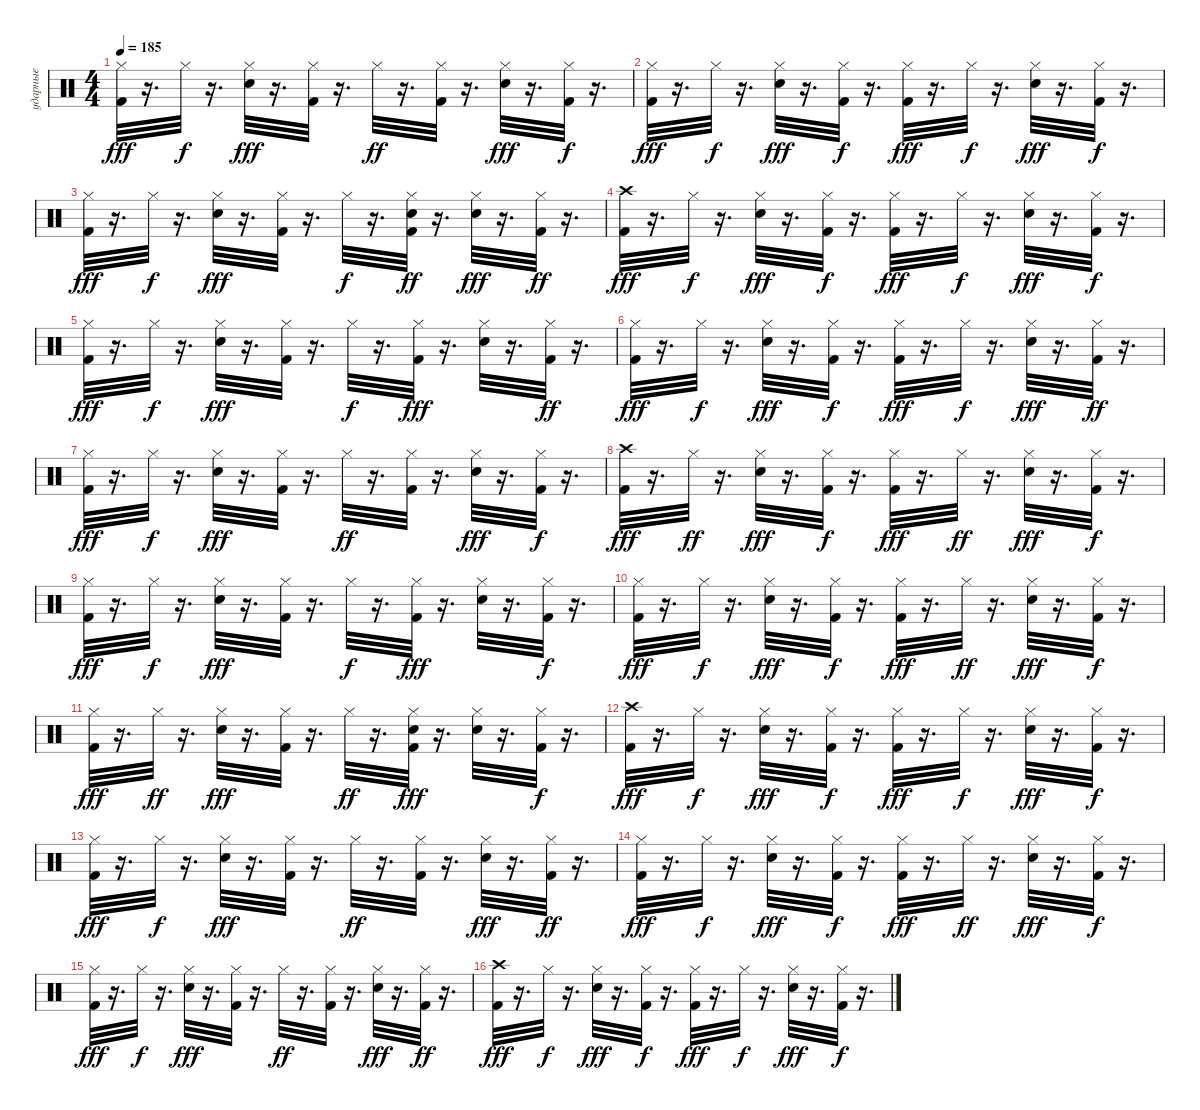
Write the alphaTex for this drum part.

\track ("ударные" "ударные") {instrument percussion}
\staff {score}
\articulation defaults
\ts (4 4)
\tempo 185
\clef neutral
\ks c
("Hi-Hat (closed)" "Kick (hit) 2").32{dy fff} r.16{d} "Hi-Hat (closed)".32{dy f} r.16{d} ("Hi-Hat (closed)" "Electric Snare (hit)").32{dy fff} r.16{d} ("Hi-Hat (closed)" "Kick (hit) 2").32 r.16{d} "Hi-Hat (closed)".32{dy ff} r.16{d} ("Kick (hit) 2" "Hi-Hat (closed)").32 r.16{d} ("Hi-Hat (closed)" "Electric Snare (hit)").32{dy fff} r.16{d} ("Hi-Hat (closed)" "Kick (hit) 2").32{dy f} r.16{d} |
("Hi-Hat (closed)" "Kick (hit) 2").32{dy fff} r.16{d} "Hi-Hat (closed)".32{dy f} r.16{d} ("Hi-Hat (closed)" "Electric Snare (hit)").32{dy fff} r.16{d} ("Hi-Hat (closed)" "Kick (hit) 2").32{dy f} r.16{d} ("Hi-Hat (closed)" "Kick (hit) 2").32{dy fff} r.16{d} "Hi-Hat (closed)".32{dy f} r.16{d} ("Hi-Hat (closed)" "Electric Snare (hit)").32{dy fff} r.16{d} ("Hi-Hat (closed)" "Kick (hit) 2").32{dy f} r.16{d} |
("Hi-Hat (closed)" "Kick (hit) 2").32{dy fff} r.16{d} "Hi-Hat (closed)".32{dy f} r.16{d} ("Hi-Hat (closed)" "Electric Snare (hit)").32{dy fff} r.16{d} ("Hi-Hat (closed)" "Kick (hit) 2").32 r.16{d} "Hi-Hat (closed)".32{dy f} r.16{d} ("Electric Snare (hit)" "Kick (hit) 2" "Hi-Hat (closed)").32{dy ff} r.16{d} ("Hi-Hat (closed)" "Electric Snare (hit)").32{dy fff} r.16{d} ("Hi-Hat (closed)" "Kick (hit) 2").32{dy ff} r.16{d} |
("Crash high (hit)" "Kick (hit) 2").32{dy fff} r.16{d} "Hi-Hat (closed)".32{dy f} r.16{d} ("Hi-Hat (closed)" "Electric Snare (hit)").32{dy fff} r.16{d} ("Hi-Hat (closed)" "Kick (hit) 2").32{dy f} r.16{d} ("Hi-Hat (closed)" "Kick (hit) 2").32{dy fff} r.16{d} "Hi-Hat (closed)".32{dy f} r.16{d} ("Hi-Hat (closed)" "Electric Snare (hit)").32{dy fff} r.16{d} ("Hi-Hat (closed)" "Kick (hit) 2").32{dy f} r.16{d} |
("Hi-Hat (closed)" "Kick (hit) 2").32{dy fff} r.16{d} "Hi-Hat (closed)".32{dy f} r.16{d} ("Hi-Hat (closed)" "Electric Snare (hit)").32{dy fff} r.16{d} ("Hi-Hat (closed)" "Kick (hit) 2").32 r.16{d} "Hi-Hat (closed)".32{dy f} r.16{d} ("Kick (hit) 2" "Hi-Hat (closed)").32{dy fff} r.16{d} ("Hi-Hat (closed)" "Electric Snare (hit)").32 r.16{d} ("Hi-Hat (closed)" "Kick (hit) 2").32{dy ff} r.16{d} |
("Hi-Hat (closed)" "Kick (hit) 2").32{dy fff} r.16{d} "Hi-Hat (closed)".32{dy f} r.16{d} ("Hi-Hat (closed)" "Electric Snare (hit)").32{dy fff} r.16{d} ("Hi-Hat (closed)" "Kick (hit) 2").32{dy f} r.16{d} ("Hi-Hat (closed)" "Kick (hit) 2").32{dy fff} r.16{d} "Hi-Hat (closed)".32{dy f} r.16{d} ("Hi-Hat (closed)" "Electric Snare (hit)").32{dy fff} r.16{d} ("Hi-Hat (closed)" "Kick (hit) 2").32{dy ff} r.16{d} |
("Hi-Hat (closed)" "Kick (hit) 2").32{dy fff} r.16{d} "Hi-Hat (closed)".32{dy f} r.16{d} ("Hi-Hat (closed)" "Electric Snare (hit)").32{dy fff} r.16{d} ("Hi-Hat (closed)" "Kick (hit) 2").32 r.16{d} "Hi-Hat (closed)".32{dy ff} r.16{d} ("Kick (hit) 2" "Hi-Hat (closed)").32 r.16{d} ("Hi-Hat (closed)" "Electric Snare (hit)").32{dy fff} r.16{d} ("Hi-Hat (closed)" "Kick (hit) 2").32{dy f} r.16{d} |
("Crash high (hit)" "Kick (hit) 2").32{dy fff} r.16{d} "Hi-Hat (closed)".32{dy ff} r.16{d} ("Hi-Hat (closed)" "Electric Snare (hit)").32{dy fff} r.16{d} ("Hi-Hat (closed)" "Kick (hit) 2").32{dy f} r.16{d} ("Hi-Hat (closed)" "Kick (hit) 2").32{dy fff} r.16{d} "Hi-Hat (closed)".32{dy ff} r.16{d} ("Hi-Hat (closed)" "Electric Snare (hit)").32{dy fff} r.16{d} ("Hi-Hat (closed)" "Kick (hit) 2").32{dy f} r.16{d} |
("Hi-Hat (closed)" "Kick (hit) 2").32{dy fff} r.16{d} "Hi-Hat (closed)".32{dy f} r.16{d} ("Hi-Hat (closed)" "Electric Snare (hit)").32{dy fff} r.16{d} ("Hi-Hat (closed)" "Kick (hit) 2").32 r.16{d} "Hi-Hat (closed)".32{dy f} r.16{d} ("Kick (hit) 2" "Hi-Hat (closed)").32{dy fff} r.16{d} ("Hi-Hat (closed)" "Electric Snare (hit)").32 r.16{d} ("Hi-Hat (closed)" "Kick (hit) 2").32{dy f} r.16{d} |
("Hi-Hat (closed)" "Kick (hit) 2").32{dy fff} r.16{d} "Hi-Hat (closed)".32{dy f} r.16{d} ("Hi-Hat (closed)" "Electric Snare (hit)").32{dy fff} r.16{d} ("Hi-Hat (closed)" "Kick (hit) 2").32{dy f} r.16{d} ("Hi-Hat (closed)" "Kick (hit) 2").32{dy fff} r.16{d} "Hi-Hat (closed)".32{dy ff} r.16{d} ("Hi-Hat (closed)" "Electric Snare (hit)").32{dy fff} r.16{d} ("Hi-Hat (closed)" "Kick (hit) 2").32{dy f} r.16{d} |
("Hi-Hat (closed)" "Kick (hit) 2").32{dy fff} r.16{d} "Hi-Hat (closed)".32{dy ff} r.16{d} ("Hi-Hat (closed)" "Electric Snare (hit)").32{dy fff} r.16{d} ("Hi-Hat (closed)" "Kick (hit) 2").32 r.16{d} "Hi-Hat (closed)".32{dy ff} r.16{d} ("Electric Snare (hit)" "Kick (hit) 2" "Hi-Hat (closed)").32{dy fff} r.16{d} ("Hi-Hat (closed)" "Electric Snare (hit)").32 r.16{d} ("Hi-Hat (closed)" "Kick (hit) 2").32{dy f} r.16{d} |
("Crash high (hit)" "Kick (hit) 2").32{dy fff} r.16{d} "Hi-Hat (closed)".32{dy f} r.16{d} ("Hi-Hat (closed)" "Electric Snare (hit)").32{dy fff} r.16{d} ("Hi-Hat (closed)" "Kick (hit) 2").32{dy f} r.16{d} ("Hi-Hat (closed)" "Kick (hit) 2").32{dy fff} r.16{d} "Hi-Hat (closed)".32{dy f} r.16{d} ("Hi-Hat (closed)" "Electric Snare (hit)").32{dy fff} r.16{d} ("Hi-Hat (closed)" "Kick (hit) 2").32{dy f} r.16{d} |
("Hi-Hat (closed)" "Kick (hit) 2").32{dy fff} r.16{d} "Hi-Hat (closed)".32{dy f} r.16{d} ("Hi-Hat (closed)" "Electric Snare (hit)").32{dy fff} r.16{d} ("Hi-Hat (closed)" "Kick (hit) 2").32 r.16{d} "Hi-Hat (closed)".32{dy ff} r.16{d} ("Kick (hit) 2" "Hi-Hat (closed)").32 r.16{d} ("Hi-Hat (closed)" "Electric Snare (hit)").32{dy fff} r.16{d} ("Hi-Hat (closed)" "Kick (hit) 2").32{dy ff} r.16{d} |
("Hi-Hat (closed)" "Kick (hit) 2").32{dy fff} r.16{d} "Hi-Hat (closed)".32{dy f} r.16{d} ("Hi-Hat (closed)" "Electric Snare (hit)").32{dy fff} r.16{d} ("Hi-Hat (closed)" "Kick (hit) 2").32{dy f} r.16{d} ("Hi-Hat (closed)" "Kick (hit) 2").32{dy fff} r.16{d} "Hi-Hat (closed)".32{dy ff} r.16{d} ("Hi-Hat (closed)" "Electric Snare (hit)").32{dy fff} r.16{d} ("Hi-Hat (closed)" "Kick (hit) 2").32{dy f} r.16{d} |
("Hi-Hat (closed)" "Kick (hit) 2").32{dy fff} r.16{d} "Hi-Hat (closed)".32{dy f} r.16{d} ("Hi-Hat (closed)" "Electric Snare (hit)").32{dy fff} r.16{d} ("Hi-Hat (closed)" "Kick (hit) 2").32 r.16{d} "Hi-Hat (closed)".32{dy ff} r.16{d} ("Kick (hit) 2" "Hi-Hat (closed)").32 r.16{d} ("Hi-Hat (closed)" "Electric Snare (hit)").32{dy fff} r.16{d} ("Hi-Hat (closed)" "Kick (hit) 2").32{dy ff} r.16{d} |
("Crash high (hit)" "Kick (hit) 2").32{dy fff} r.16{d} "Hi-Hat (closed)".32{dy f} r.16{d} ("Hi-Hat (closed)" "Electric Snare (hit)").32{dy fff} r.16{d} ("Hi-Hat (closed)" "Kick (hit) 2").32{dy f} r.16{d} ("Hi-Hat (closed)" "Kick (hit) 2").32{dy fff} r.16{d} "Hi-Hat (closed)".32{dy f} r.16{d} ("Hi-Hat (closed)" "Electric Snare (hit)").32{dy fff} r.16{d} ("Hi-Hat (closed)" "Kick (hit) 2").32{dy f} r.16{d}
